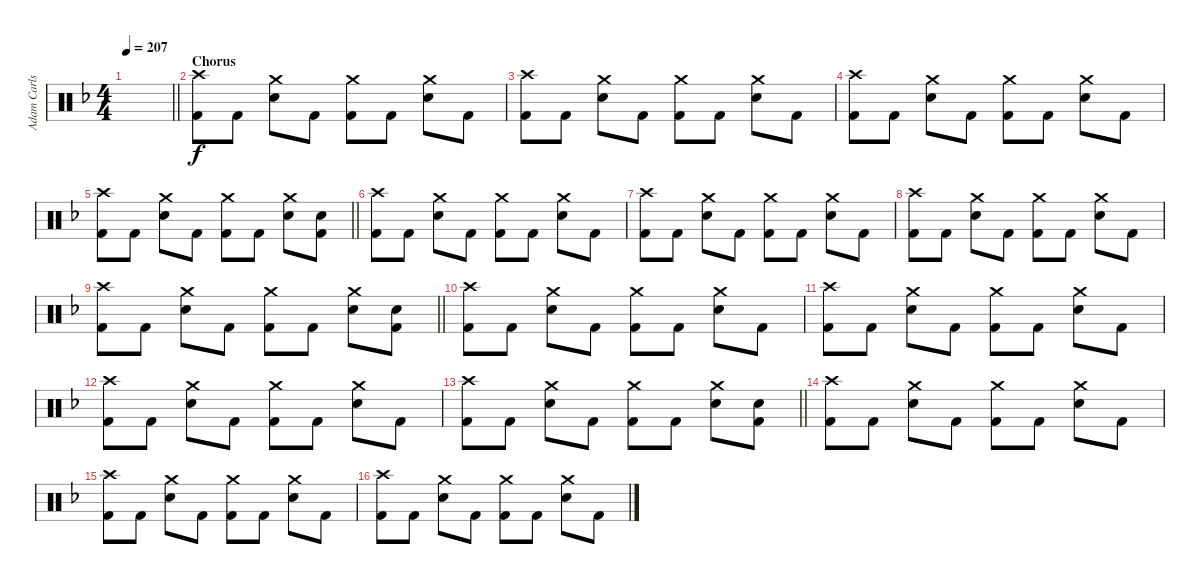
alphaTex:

\track ("Adam Carlson" "Adam Carls") {instrument percussion}
\staff {score}
\articulation defaults
\ts (4 4)
\tempo 207
\clef neutral
\barLineRight lightlight
\ks f
|
\section ("" "Chorus")
("Crash high (hit)" "Kick (hit) 2").8{dy f} "Kick (hit) 2".8 ("Crash medium (hit)" "Electric Snare (hit)").8 "Kick (hit) 2".8 ("Crash medium (hit)" "Kick (hit) 2").8 "Kick (hit) 2".8 ("Crash medium (hit)" "Electric Snare (hit)").8 "Kick (hit) 2".8 |
("Crash high (hit)" "Kick (hit) 2").8 "Kick (hit) 2".8 ("Crash medium (hit)" "Electric Snare (hit)").8 "Kick (hit) 2".8 ("Crash medium (hit)" "Kick (hit) 2").8 "Kick (hit) 2".8 ("Crash medium (hit)" "Electric Snare (hit)").8 "Kick (hit) 2".8 |
("Crash high (hit)" "Kick (hit) 2").8 "Kick (hit) 2".8 ("Crash medium (hit)" "Electric Snare (hit)").8 "Kick (hit) 2".8 ("Crash medium (hit)" "Kick (hit) 2").8 "Kick (hit) 2".8 ("Crash medium (hit)" "Electric Snare (hit)").8 "Kick (hit) 2".8 |
\barLineRight lightlight
("Crash high (hit)" "Kick (hit) 2").8 "Kick (hit) 2".8 ("Crash medium (hit)" "Electric Snare (hit)").8 "Kick (hit) 2".8 ("Crash medium (hit)" "Kick (hit) 2").8 "Kick (hit) 2".8 ("Crash medium (hit)" "Electric Snare (hit)").8 ("Electric Snare (hit)" "Kick (hit) 2").8 |
("Crash high (hit)" "Kick (hit) 2").8 "Kick (hit) 2".8 ("Crash medium (hit)" "Electric Snare (hit)").8 "Kick (hit) 2".8 ("Crash medium (hit)" "Kick (hit) 2").8 "Kick (hit) 2".8 ("Crash medium (hit)" "Electric Snare (hit)").8 "Kick (hit) 2".8 |
("Crash high (hit)" "Kick (hit) 2").8 "Kick (hit) 2".8 ("Crash medium (hit)" "Electric Snare (hit)").8 "Kick (hit) 2".8 ("Crash medium (hit)" "Kick (hit) 2").8 "Kick (hit) 2".8 ("Crash medium (hit)" "Electric Snare (hit)").8 "Kick (hit) 2".8 |
("Crash high (hit)" "Kick (hit) 2").8 "Kick (hit) 2".8 ("Crash medium (hit)" "Electric Snare (hit)").8 "Kick (hit) 2".8 ("Crash medium (hit)" "Kick (hit) 2").8 "Kick (hit) 2".8 ("Crash medium (hit)" "Electric Snare (hit)").8 "Kick (hit) 2".8 |
\barLineRight lightlight
("Crash high (hit)" "Kick (hit) 2").8 "Kick (hit) 2".8 ("Crash medium (hit)" "Electric Snare (hit)").8 "Kick (hit) 2".8 ("Crash medium (hit)" "Kick (hit) 2").8 "Kick (hit) 2".8 ("Crash medium (hit)" "Electric Snare (hit)").8 ("Electric Snare (hit)" "Kick (hit) 2").8 |
("Crash high (hit)" "Kick (hit) 2").8 "Kick (hit) 2".8 ("Crash medium (hit)" "Electric Snare (hit)").8 "Kick (hit) 2".8 ("Crash medium (hit)" "Kick (hit) 2").8 "Kick (hit) 2".8 ("Crash medium (hit)" "Electric Snare (hit)").8 "Kick (hit) 2".8 |
("Crash high (hit)" "Kick (hit) 2").8 "Kick (hit) 2".8 ("Crash medium (hit)" "Electric Snare (hit)").8 "Kick (hit) 2".8 ("Crash medium (hit)" "Kick (hit) 2").8 "Kick (hit) 2".8 ("Crash medium (hit)" "Electric Snare (hit)").8 "Kick (hit) 2".8 |
("Crash high (hit)" "Kick (hit) 2").8 "Kick (hit) 2".8 ("Crash medium (hit)" "Electric Snare (hit)").8 "Kick (hit) 2".8 ("Crash medium (hit)" "Kick (hit) 2").8 "Kick (hit) 2".8 ("Crash medium (hit)" "Electric Snare (hit)").8 "Kick (hit) 2".8 |
\barLineRight lightlight
("Crash high (hit)" "Kick (hit) 2").8 "Kick (hit) 2".8 ("Crash medium (hit)" "Electric Snare (hit)").8 "Kick (hit) 2".8 ("Crash medium (hit)" "Kick (hit) 2").8 "Kick (hit) 2".8 ("Crash medium (hit)" "Electric Snare (hit)").8 ("Electric Snare (hit)" "Kick (hit) 2").8 |
("Crash high (hit)" "Kick (hit) 2").8 "Kick (hit) 2".8 ("Crash medium (hit)" "Electric Snare (hit)").8 "Kick (hit) 2".8 ("Crash medium (hit)" "Kick (hit) 2").8 "Kick (hit) 2".8 ("Crash medium (hit)" "Electric Snare (hit)").8 "Kick (hit) 2".8 |
("Crash high (hit)" "Kick (hit) 2").8 "Kick (hit) 2".8 ("Crash medium (hit)" "Electric Snare (hit)").8 "Kick (hit) 2".8 ("Crash medium (hit)" "Kick (hit) 2").8 "Kick (hit) 2".8 ("Crash medium (hit)" "Electric Snare (hit)").8 "Kick (hit) 2".8 |
("Crash high (hit)" "Kick (hit) 2").8 "Kick (hit) 2".8 ("Crash medium (hit)" "Electric Snare (hit)").8 "Kick (hit) 2".8 ("Crash medium (hit)" "Kick (hit) 2").8 "Kick (hit) 2".8 ("Crash medium (hit)" "Electric Snare (hit)").8 "Kick (hit) 2".8
